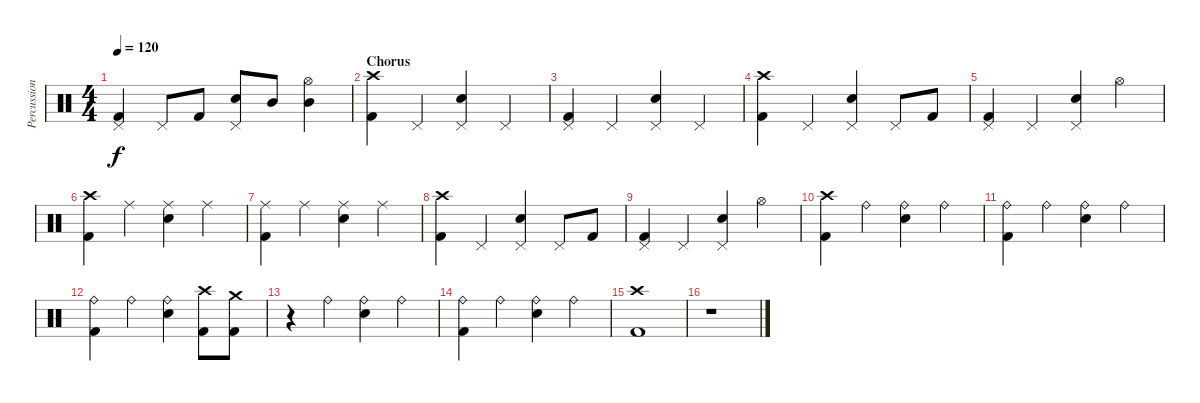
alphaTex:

\track ("Percussion" "Percussion") {instrument percussion}
\staff {score}
\articulation defaults
\ts (4 4)
\tempo 120
\clef neutral
\ks c
("Pedal Hi-Hat (hit)" "Kick (hit) 2").4{dy f} "Pedal Hi-Hat (hit)".8 "Kick (hit) 2".8 ("Pedal Hi-Hat (hit)" "Snare (hit) 2").8 "Mid Tom (hit)".8 ("Hi-Hat (open)" "Mid Tom (hit)").4 |
\section ("" "Chorus")
("Crash high (hit)" "Kick (hit) 2").4 "Pedal Hi-Hat (hit)".4 ("Pedal Hi-Hat (hit)" "Snare (hit) 2").4 "Pedal Hi-Hat (hit)".4 |
("Pedal Hi-Hat (hit)" "Kick (hit) 2").4 "Pedal Hi-Hat (hit)".4 ("Pedal Hi-Hat (hit)" "Snare (hit) 2").4 "Pedal Hi-Hat (hit)".4 |
("Crash high (hit)" "Kick (hit) 2").4 "Pedal Hi-Hat (hit)".4 ("Pedal Hi-Hat (hit)" "Snare (hit) 2").4 "Pedal Hi-Hat (hit)".8 "Kick (hit) 2".8 |
("Pedal Hi-Hat (hit)" "Kick (hit) 2").4 "Pedal Hi-Hat (hit)".4 ("Pedal Hi-Hat (hit)" "Snare (hit) 2").4 "Hi-Hat (open)".4 |
("Crash high (hit)" "Kick (hit) 2").4 "Ride (middle)".4 ("Ride (middle)" "Snare (hit) 2").4 "Ride (middle)".4 |
("Ride (middle)" "Kick (hit) 2").4 "Ride (middle)".4 ("Ride (middle)" "Snare (hit) 2").4 "Ride (middle)".4 |
("Crash high (hit)" "Kick (hit) 2").4 "Pedal Hi-Hat (hit)".4 ("Pedal Hi-Hat (hit)" "Snare (hit) 2").4 "Pedal Hi-Hat (hit)".8 "Kick (hit) 2".8 |
("Pedal Hi-Hat (hit)" "Kick (hit) 2").4 "Pedal Hi-Hat (hit)".4 ("Pedal Hi-Hat (hit)" "Snare (hit) 2").4 "Hi-Hat (open)".4 |
("Crash high (hit)" "Kick (hit) 2").4 "Ride (bell)".4 ("Ride (bell)" "Snare (hit) 2").4 "Ride (bell)".4 |
("Ride (bell)" "Kick (hit) 2").4 "Ride (bell)".4 ("Ride (bell)" "Snare (hit) 2").4 "Ride (bell)".4 |
("Ride (bell)" "Kick (hit) 2").4 "Ride (bell)".4 ("Ride (bell)" "Snare (hit) 2").4 ("Crash high (hit)" "Kick (hit) 2").8 ("Crash medium (hit)" "Kick (hit) 2").8 |
r.4 "Ride (bell)".4 ("Ride (bell)" "Snare (hit) 2").4 "Ride (bell)".4 |
("Ride (bell)" "Kick (hit) 2").4 "Ride (bell)".4 ("Ride (bell)" "Snare (hit) 2").4 "Ride (bell)".4 |
("Crash high (hit)" "Kick (hit) 2").1 |
r.1
